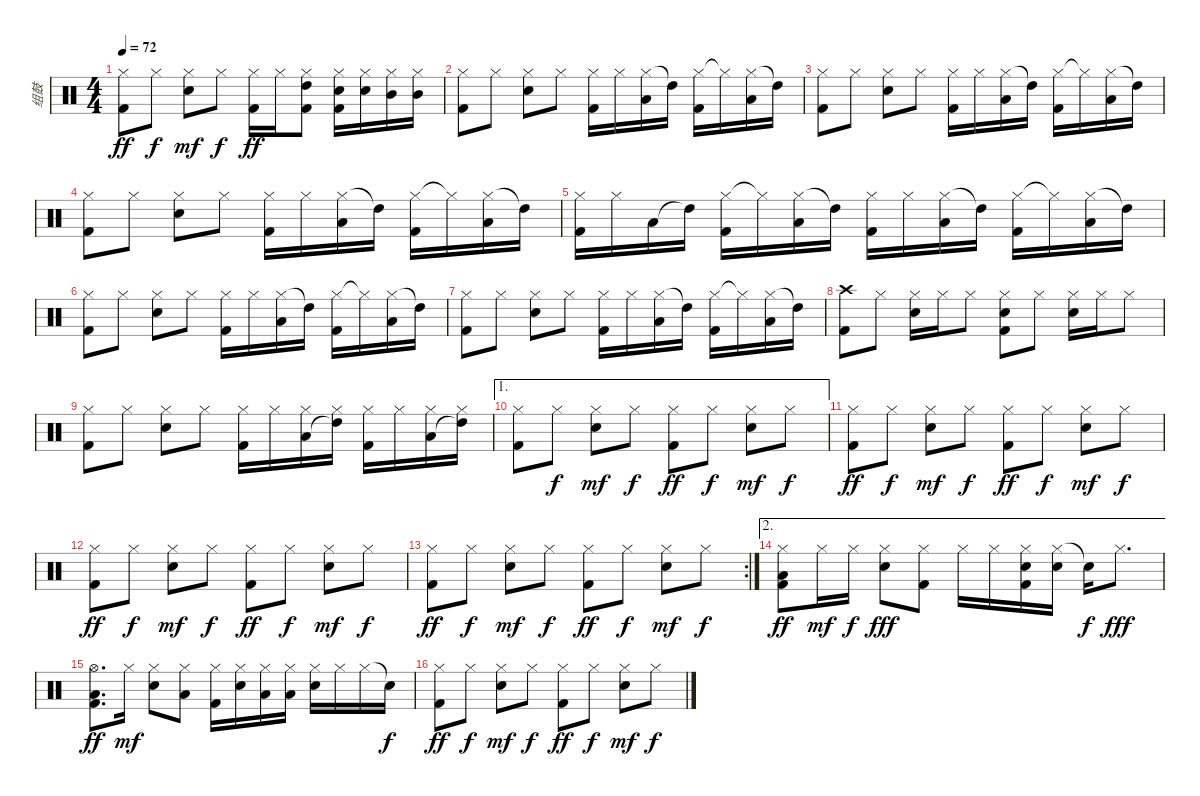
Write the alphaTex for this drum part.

\track ("组鼓" "组鼓") {instrument percussion}
\staff {score}
\articulation defaults
\ts (4 4)
\tempo 72
\clef neutral
\ks c
("Hi-Hat (closed)" "Kick (hit) 2").8{dy ff} "Hi-Hat (closed)".8{dy f} ("Hi-Hat (closed)" "Snare (hit) 2").8{dy mf} "Hi-Hat (closed)".8{dy f} ("Hi-Hat (closed)" "Kick (hit) 2").16{dy ff} "Hi-Hat (closed)".16 ("Hi-Hat (closed)" "High Tom (hit)" "Kick (hit) 2").8 ("Hi-Hat (closed)" "Snare (hit) 2" "Kick (hit) 2").16 ("Hi-Hat (closed)" "Snare (hit) 2").16 ("Hi-Hat (closed)" "Mid Tom (hit)").16 ("Hi-Hat (closed)" "Mid Tom (hit)").16 |
("Hi-Hat (closed)" "Kick (hit) 2").8 "Hi-Hat (closed)".8 ("Hi-Hat (closed)" "Snare (hit) 2").8 "Hi-Hat (closed)".8 ("Hi-Hat (closed)" "Kick (hit) 2").16 "Hi-Hat (closed)".16 ("Hi-Hat (closed)" "Low Tom (hit)").16 "High Tom (hit)"{t}.16 ("Hi-Hat (closed)" "Kick (hit) 2").16 "Hi-Hat (closed)"{t}.16 ("Hi-Hat (closed)" "Low Tom (hit)").16 "High Tom (hit)"{t}.16 |
("Hi-Hat (closed)" "Kick (hit) 2").8 "Hi-Hat (closed)".8 ("Hi-Hat (closed)" "Snare (hit) 2").8 "Hi-Hat (closed)".8 ("Hi-Hat (closed)" "Kick (hit) 2").16 "Hi-Hat (closed)".16 ("Hi-Hat (closed)" "Low Tom (hit)").16 "High Tom (hit)"{t}.16 ("Hi-Hat (closed)" "Kick (hit) 2").16 "Hi-Hat (closed)"{t}.16 ("Hi-Hat (closed)" "Low Tom (hit)").16 "High Tom (hit)"{t}.16 |
("Hi-Hat (closed)" "Kick (hit) 2").8 "Hi-Hat (closed)".8 ("Hi-Hat (closed)" "Snare (hit) 2").8 "Hi-Hat (closed)".8 ("Hi-Hat (closed)" "Kick (hit) 2").16 "Hi-Hat (closed)".16 ("Hi-Hat (closed)" "Low Tom (hit)").16 "High Tom (hit)"{t}.16 ("Hi-Hat (closed)" "Kick (hit) 2").16 "Hi-Hat (closed)"{t}.16 ("Hi-Hat (closed)" "Low Tom (hit)").16 "High Tom (hit)"{t}.16 |
("Hi-Hat (closed)" "Kick (hit) 2").16 "Hi-Hat (closed)".16 "Low Tom (hit)".16 "High Tom (hit)"{t}.16 ("Hi-Hat (closed)" "Kick (hit) 2").16 "Hi-Hat (closed)"{t}.16 ("Hi-Hat (closed)" "Low Tom (hit)").16 "High Tom (hit)"{t}.16 ("Hi-Hat (closed)" "Kick (hit) 2").16 "Hi-Hat (closed)".16 ("Hi-Hat (closed)" "Low Tom (hit)").16 "High Tom (hit)"{t}.16 ("Hi-Hat (closed)" "Kick (hit) 2").16 "Hi-Hat (closed)"{t}.16 ("Hi-Hat (closed)" "Low Tom (hit)").16 "High Tom (hit)"{t}.16 |
("Hi-Hat (closed)" "Kick (hit) 2").8 "Hi-Hat (closed)".8 ("Hi-Hat (closed)" "Snare (hit) 2").8 "Hi-Hat (closed)".8 ("Hi-Hat (closed)" "Kick (hit) 2").16 "Hi-Hat (closed)".16 ("Hi-Hat (closed)" "Low Tom (hit)").16 "High Tom (hit)"{t}.16 ("Hi-Hat (closed)" "Kick (hit) 2").16 "Hi-Hat (closed)"{t}.16 ("Hi-Hat (closed)" "Low Tom (hit)").16 "High Tom (hit)"{t}.16 |
("Hi-Hat (closed)" "Kick (hit) 2").8 "Hi-Hat (closed)".8 ("Hi-Hat (closed)" "Snare (hit) 2").8 "Hi-Hat (closed)".8 ("Hi-Hat (closed)" "Kick (hit) 2").16 "Hi-Hat (closed)".16 ("Hi-Hat (closed)" "Low Tom (hit)").16 "High Tom (hit)"{t}.16 ("Hi-Hat (closed)" "Kick (hit) 2").16 "Hi-Hat (closed)"{t}.16 ("Hi-Hat (closed)" "Low Tom (hit)").16 "High Tom (hit)"{t}.16 |
("Crash high (hit)" "Kick (hit) 2").8 "Hi-Hat (closed)".8 ("Hi-Hat (closed)" "Snare (hit) 2").16 "Hi-Hat (closed)".16 "Hi-Hat (closed)".8 ("Hi-Hat (closed)" "Snare (hit) 2" "Kick (hit) 2").8 "Hi-Hat (closed)".8 ("Hi-Hat (closed)" "Snare (hit) 2").16 "Hi-Hat (closed)".16 "Hi-Hat (closed)".8 |
("Hi-Hat (closed)" "Kick (hit) 2").8 "Hi-Hat (closed)".8 ("Hi-Hat (closed)" "Snare (hit) 2").8 "Hi-Hat (closed)".8 ("Hi-Hat (closed)" "Kick (hit) 2").16 "Hi-Hat (closed)".16 ("Hi-Hat (closed)" "Low Tom (hit)").16 ("Hi-Hat (closed)" "High Tom (hit)"{t}).16 ("Hi-Hat (closed)" "Kick (hit) 2").16 "Hi-Hat (closed)".16 ("Hi-Hat (closed)" "Low Tom (hit)").16 ("Hi-Hat (closed)" "High Tom (hit)"{t}).16 |
\ae 1
("Hi-Hat (closed)" "Kick (hit) 2").8 "Hi-Hat (closed)".8{dy f} ("Hi-Hat (closed)" "Snare (hit) 2").8{dy mf} "Hi-Hat (closed)".8{dy f} ("Hi-Hat (closed)" "Kick (hit) 2").8{dy ff} "Hi-Hat (closed)".8{dy f} ("Hi-Hat (closed)" "Snare (hit) 2").8{dy mf} "Hi-Hat (closed)".8{dy f} |
("Hi-Hat (closed)" "Kick (hit) 2").8{dy ff} "Hi-Hat (closed)".8{dy f} ("Hi-Hat (closed)" "Snare (hit) 2").8{dy mf} "Hi-Hat (closed)".8{dy f} ("Hi-Hat (closed)" "Kick (hit) 2").8{dy ff} "Hi-Hat (closed)".8{dy f} ("Hi-Hat (closed)" "Snare (hit) 2").8{dy mf} "Hi-Hat (closed)".8{dy f} |
("Hi-Hat (closed)" "Kick (hit) 2").8{dy ff} "Hi-Hat (closed)".8{dy f} ("Hi-Hat (closed)" "Snare (hit) 2").8{dy mf} "Hi-Hat (closed)".8{dy f} ("Hi-Hat (closed)" "Kick (hit) 2").8{dy ff} "Hi-Hat (closed)".8{dy f} ("Hi-Hat (closed)" "Snare (hit) 2").8{dy mf} "Hi-Hat (closed)".8{dy f} |
\rc 2
("Hi-Hat (closed)" "Kick (hit) 2").8{dy ff} "Hi-Hat (closed)".8{dy f} ("Hi-Hat (closed)" "Snare (hit) 2").8{dy mf} "Hi-Hat (closed)".8{dy f} ("Hi-Hat (closed)" "Kick (hit) 2").8{dy ff} "Hi-Hat (closed)".8{dy f} ("Hi-Hat (closed)" "Snare (hit) 2").8{dy mf} "Hi-Hat (closed)".8{dy f} |
\ae 2
("Hi-Hat (closed)" "Low Tom (hit)" "Kick (hit) 2").8{dy ff} "Hi-Hat (closed)".16{dy mf} "Hi-Hat (closed)".16{dy f} ("Hi-Hat (closed)" "Snare (hit) 2").8{dy fff} ("Hi-Hat (closed)" "Kick (hit) 2").8 "Hi-Hat (closed)".16 "Hi-Hat (closed)".16 ("Hi-Hat (closed)" "Snare (hit) 2" "Kick (hit) 2").16 ("Hi-Hat (closed)" "Snare (hit) 2").16 "Snare (hit) 2"{t}.16{dy f} "Hi-Hat (closed)".8{d dy fff} |
("Hi-Hat (open)" "Low Tom (hit)" "Kick (hit) 2").8{d dy ff} "Hi-Hat (closed)".16{dy mf} ("Hi-Hat (closed)" "Snare (hit) 2").8 ("Hi-Hat (closed)" "Low Tom (hit)").8 ("Hi-Hat (closed)" "Kick (hit) 2").16 ("Hi-Hat (closed)" "Snare (hit) 2").16 ("Hi-Hat (closed)" "Low Tom (hit)").16 ("Hi-Hat (closed)" "Low Tom (hit)").16 ("Hi-Hat (closed)" "Snare (hit) 2").16 "Hi-Hat (closed)".16 "Hi-Hat (closed)".16 "Snare (hit)"{t}.16{dy f} |
("Hi-Hat (closed)" "Kick (hit) 2").8{dy ff} "Hi-Hat (closed)".8{dy f} ("Hi-Hat (closed)" "Snare (hit) 2").8{dy mf} "Hi-Hat (closed)".8{dy f} ("Hi-Hat (closed)" "Kick (hit) 2").8{dy ff} "Hi-Hat (closed)".8{dy f} ("Hi-Hat (closed)" "Snare (hit) 2").8{dy mf} "Hi-Hat (closed)".8{dy f}
